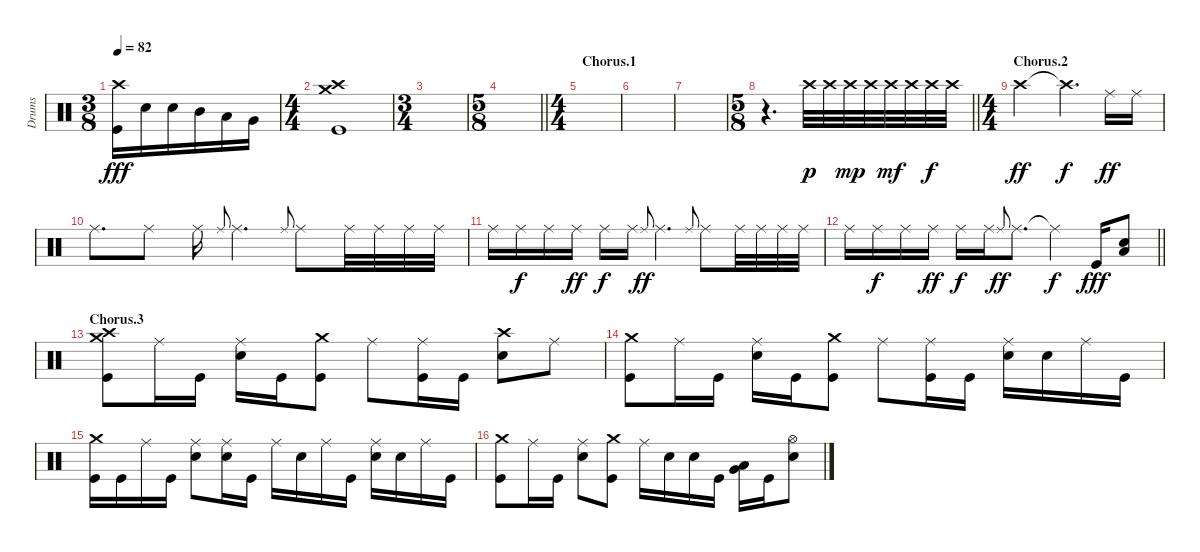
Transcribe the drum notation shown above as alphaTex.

\track ("Drums" "Drums") {instrument percussion}
\staff {score}
\articulation defaults
\ts (3 8)
\tempo 82
\clef neutral
\ks c
("Crash high (hit)" "Kick (hit)").16{dy fff} "Snare (hit) 2".16 "Snare (hit) 2".16 "Mid Tom (hit)".16 "Low Tom (hit)".16 "Very Low Tom (hit)".16 |
\ts (4 4)
("Crash medium (hit)" "Crash high (hit)" "Kick (hit)").1 |
\ts (3 4)
|
\ts (5 8)
\barLineRight lightlight
|
\ts (4 4)
\section ("" "Chorus.1")
|
|
|
\ts (5 8)
\barLineRight lightlight
r.4{d} "Crash high (hit)".32{dy p} "Crash high (hit)".32 "Crash high (hit)".32{dy mp} "Crash high (hit)".32 "Crash high (hit)".32{dy mf} "Crash high (hit)".32 "Crash high (hit)".32{dy f} "Crash high (hit)".32 |
\ts (4 4)
\section ("" "Chorus.2")
"Crash high (hit)".2{dy ff} "Crash high (hit)"{t}.4{d dy f} "Ride (middle)".16{dy ff} "Ride (middle)".16 |
"Ride (middle)".8{d} "Ride (middle)".8 "Ride (middle)".16 "Ride (middle)".8{gr onbeat} "Ride (middle)".4{d} "Ride (middle)".8{gr onbeat} "Ride (middle)".8 "Ride (middle)".32 "Ride (middle)".32 "Ride (middle)".32 "Ride (middle)".32 |
"Ride (middle)".16 "Ride (middle)".16{dy f} "Ride (middle)".16 "Ride (middle)".16{dy ff} "Ride (middle)".16{dy f} "Ride (middle)".16 "Ride (middle)".8{gr onbeat dy ff} "Ride (middle)".4{d} "Ride (middle)".8{gr onbeat} "Ride (middle)".8 "Ride (middle)".32 "Ride (middle)".32 "Ride (middle)".32 "Ride (middle)".32 |
\barLineRight lightlight "Ride (middle)".16 "Ride (middle)".16{dy f} "Ride (middle)".16 "Ride (middle)".16{dy ff} "Ride (middle)".16{dy f} "Ride (middle)".16 "Ride (middle)".8{gr onbeat dy ff} "Ride (middle)".8{d} "Ride (middle)"{t}.4{dy f} "Kick (hit)".16{dy fff}
("Low Floor Tom (hit)" "Snare (hit) 2").8 |
\section ("" "Chorus.3")
("Crash medium (hit)" "Crash high (hit)" "Kick (hit)").8 "Ride (middle)".16 "Kick (hit)".16 ("Ride (middle)" "Snare (hit) 2").16 "Kick (hit)".16 ("Crash medium (hit)" "Kick (hit)").8 "Ride (middle)".8 ("Ride (middle)" "Kick (hit)").16 "Kick (hit)".16 ("Crash high (hit)" "Snare (hit) 2").8 "Ride (middle)".8 |
("Crash medium (hit)" "Kick (hit)").8 "Ride (middle)".16 "Kick (hit)".16 ("Ride (middle)" "Snare (hit) 2").16 "Kick (hit)".16 ("Crash medium (hit)" "Kick (hit)").8 "Ride (middle)".8 ("Ride (middle)" "Kick (hit)").16 "Kick (hit)".16 ("Ride (middle)" "Snare (hit) 2").16 "Snare (hit) 2".16 "Ride (middle)".16 "Kick (hit)".16 |
("Crash medium (hit)" "Kick (hit)").16 "Kick (hit)".16 "Ride (middle)".16 "Kick (hit)".16 ("Ride (middle)" "Snare (hit) 2").8 ("Ride (middle)" "Snare (hit) 2").16 "Kick (hit)".16 "Ride (middle)".16 "Snare (hit) 2".16 "Ride (middle)".16 "Kick (hit)".16 ("Ride (middle)" "Snare (hit) 2").16 "Snare (hit) 2".16 "Ride (middle)".16 "Kick (hit)".16 |
("Crash medium (hit)" "Kick (hit)").8 "Ride (middle)".16 "Kick (hit)".16 ("Ride (middle)" "Snare (hit) 2").8 ("Crash medium (hit)" "Kick (hit)").8 "Ride (middle)".16 "Snare (hit) 2".16 "Snare (hit) 2".16 "Kick (hit)".16 ("Very Low Tom (hit)" "Low Floor Tom (hit)").16 "Kick (hit)".16 ("Hi-Hat (open)" "Snare (hit) 2").8
